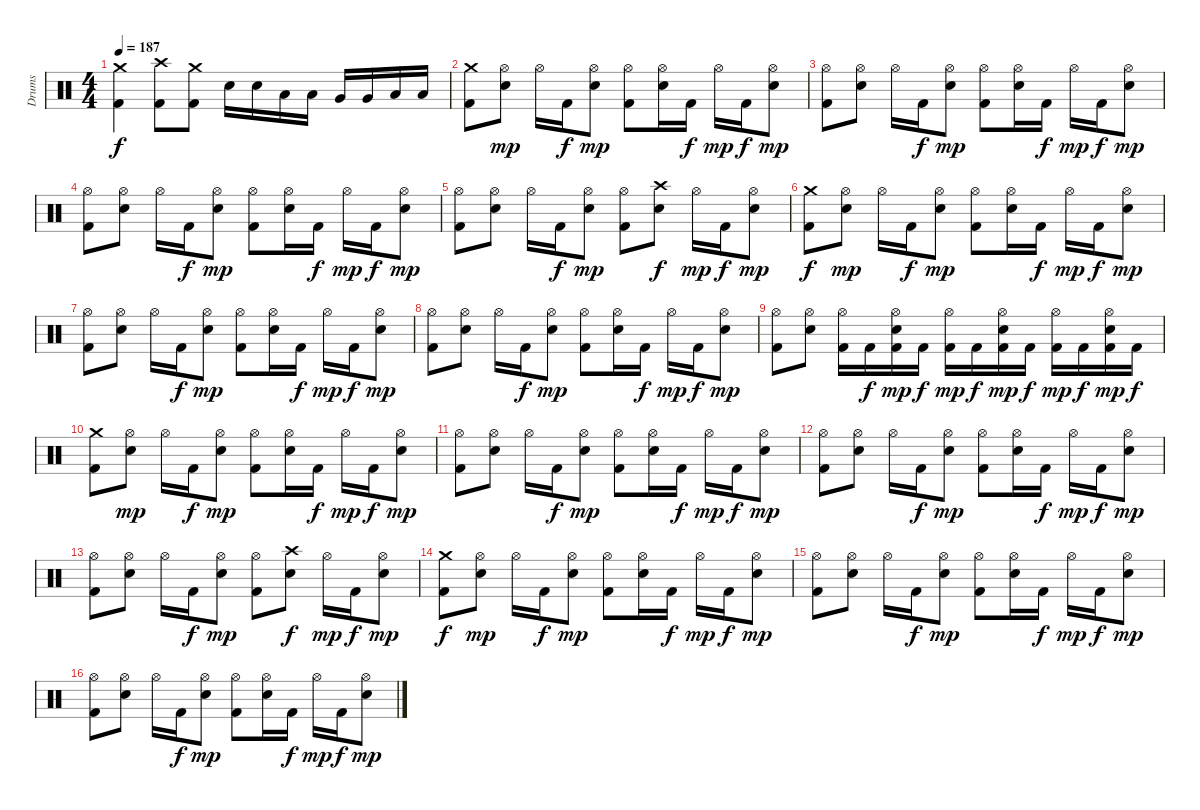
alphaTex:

\track ("Drums" "Drums") {instrument percussion}
\staff {score}
\articulation defaults
\ts (4 4)
\tempo 187
\clef neutral
\ks c
("Crash medium (hit)" "Kick (hit) 2").4{dy f} ("Crash high (hit)" "Kick (hit) 2").8 ("Crash medium (hit)" "Kick (hit) 2").8 "Snare (hit) 2".16 "Snare (hit) 2".16 "Low Tom (hit)".16 "Low Tom (hit)".16 "Very Low Tom (hit)".16 "Very Low Tom (hit)".16 "Low Floor Tom (hit)".16 "Low Floor Tom (hit)".16 |
("Crash medium (hit)" "Kick (hit) 2").8 ("Hi-Hat (open)" "Snare (hit) 2").8{dy mp} "Hi-Hat (open)".16 "Kick (hit) 2".16{dy f} ("Hi-Hat (open)" "Snare (hit) 2").8{dy mp} ("Hi-Hat (open)" "Kick (hit) 2").8 ("Hi-Hat (open)" "Snare (hit) 2").16 "Kick (hit) 2".16{dy f} "Hi-Hat (open)".16{dy mp} "Kick (hit) 2".16{dy f} ("Hi-Hat (open)" "Snare (hit) 2").8{dy mp} |
("Hi-Hat (open)" "Kick (hit) 2").8 ("Hi-Hat (open)" "Snare (hit) 2").8 "Hi-Hat (open)".16 "Kick (hit) 2".16{dy f} ("Hi-Hat (open)" "Snare (hit) 2").8{dy mp} ("Hi-Hat (open)" "Kick (hit) 2").8 ("Hi-Hat (open)" "Snare (hit) 2").16 "Kick (hit) 2".16{dy f} "Hi-Hat (open)".16{dy mp} "Kick (hit) 2".16{dy f} ("Hi-Hat (open)" "Snare (hit) 2").8{dy mp} |
("Hi-Hat (open)" "Kick (hit) 2").8 ("Hi-Hat (open)" "Snare (hit) 2").8 "Hi-Hat (open)".16 "Kick (hit) 2".16{dy f} ("Hi-Hat (open)" "Snare (hit) 2").8{dy mp} ("Hi-Hat (open)" "Kick (hit) 2").8 ("Hi-Hat (open)" "Snare (hit) 2").16 "Kick (hit) 2".16{dy f} "Hi-Hat (open)".16{dy mp} "Kick (hit) 2".16{dy f} ("Hi-Hat (open)" "Snare (hit) 2").8{dy mp} |
("Hi-Hat (open)" "Kick (hit) 2").8 ("Hi-Hat (open)" "Snare (hit) 2").8 "Hi-Hat (open)".16 "Kick (hit) 2".16{dy f} ("Hi-Hat (open)" "Snare (hit) 2").8{dy mp} ("Hi-Hat (open)" "Kick (hit) 2").8 ("Crash high (hit)" "Snare (hit) 2").8{dy f} "Hi-Hat (open)".16{dy mp} "Kick (hit) 2".16{dy f} ("Hi-Hat (open)" "Snare (hit) 2").8{dy mp} |
("Crash medium (hit)" "Kick (hit) 2").8{dy f} ("Hi-Hat (open)" "Snare (hit) 2").8{dy mp} "Hi-Hat (open)".16 "Kick (hit) 2".16{dy f} ("Hi-Hat (open)" "Snare (hit) 2").8{dy mp} ("Hi-Hat (open)" "Kick (hit) 2").8 ("Hi-Hat (open)" "Snare (hit) 2").16 "Kick (hit) 2".16{dy f} "Hi-Hat (open)".16{dy mp} "Kick (hit) 2".16{dy f} ("Hi-Hat (open)" "Snare (hit) 2").8{dy mp} |
("Hi-Hat (open)" "Kick (hit) 2").8 ("Hi-Hat (open)" "Snare (hit) 2").8 "Hi-Hat (open)".16 "Kick (hit) 2".16{dy f} ("Hi-Hat (open)" "Snare (hit) 2").8{dy mp} ("Hi-Hat (open)" "Kick (hit) 2").8 ("Hi-Hat (open)" "Snare (hit) 2").16 "Kick (hit) 2".16{dy f} "Hi-Hat (open)".16{dy mp} "Kick (hit) 2".16{dy f} ("Hi-Hat (open)" "Snare (hit) 2").8{dy mp} |
("Hi-Hat (open)" "Kick (hit) 2").8 ("Hi-Hat (open)" "Snare (hit) 2").8 "Hi-Hat (open)".16 "Kick (hit) 2".16{dy f} ("Hi-Hat (open)" "Snare (hit) 2").8{dy mp} ("Hi-Hat (open)" "Kick (hit) 2").8 ("Hi-Hat (open)" "Snare (hit) 2").16 "Kick (hit) 2".16{dy f} "Hi-Hat (open)".16{dy mp} "Kick (hit) 2".16{dy f} ("Hi-Hat (open)" "Snare (hit) 2").8{dy mp} |
("Hi-Hat (open)" "Kick (hit) 2").8 ("Hi-Hat (open)" "Snare (hit) 2").8 ("Hi-Hat (open)" "Kick (hit) 2").16 "Kick (hit) 2".16{dy f} ("Hi-Hat (open)" "Snare (hit) 2" "Kick (hit) 2").16{dy mp} "Kick (hit) 2".16{dy f} ("Hi-Hat (open)" "Kick (hit) 2").16{dy mp} "Kick (hit) 2".16{dy f} ("Hi-Hat (open)" "Snare (hit) 2" "Kick (hit) 2").16{dy mp} "Kick (hit) 2".16{dy f} ("Hi-Hat (open)" "Kick (hit) 2").16{dy mp} "Kick (hit) 2".16{dy f} ("Hi-Hat (open)" "Snare (hit) 2" "Kick (hit) 2").16{dy mp} "Kick (hit) 2".16{dy f} |
("Crash medium (hit)" "Kick (hit) 2").8 ("Hi-Hat (open)" "Snare (hit) 2").8{dy mp} "Hi-Hat (open)".16 "Kick (hit) 2".16{dy f} ("Hi-Hat (open)" "Snare (hit) 2").8{dy mp} ("Hi-Hat (open)" "Kick (hit) 2").8 ("Hi-Hat (open)" "Snare (hit) 2").16 "Kick (hit) 2".16{dy f} "Hi-Hat (open)".16{dy mp} "Kick (hit) 2".16{dy f} ("Hi-Hat (open)" "Snare (hit) 2").8{dy mp} |
("Hi-Hat (open)" "Kick (hit) 2").8 ("Hi-Hat (open)" "Snare (hit) 2").8 "Hi-Hat (open)".16 "Kick (hit) 2".16{dy f} ("Hi-Hat (open)" "Snare (hit) 2").8{dy mp} ("Hi-Hat (open)" "Kick (hit) 2").8 ("Hi-Hat (open)" "Snare (hit) 2").16 "Kick (hit) 2".16{dy f} "Hi-Hat (open)".16{dy mp} "Kick (hit) 2".16{dy f} ("Hi-Hat (open)" "Snare (hit) 2").8{dy mp} |
("Hi-Hat (open)" "Kick (hit) 2").8 ("Hi-Hat (open)" "Snare (hit) 2").8 "Hi-Hat (open)".16 "Kick (hit) 2".16{dy f} ("Hi-Hat (open)" "Snare (hit) 2").8{dy mp} ("Hi-Hat (open)" "Kick (hit) 2").8 ("Hi-Hat (open)" "Snare (hit) 2").16 "Kick (hit) 2".16{dy f} "Hi-Hat (open)".16{dy mp} "Kick (hit) 2".16{dy f} ("Hi-Hat (open)" "Snare (hit) 2").8{dy mp} |
("Hi-Hat (open)" "Kick (hit) 2").8 ("Hi-Hat (open)" "Snare (hit) 2").8 "Hi-Hat (open)".16 "Kick (hit) 2".16{dy f} ("Hi-Hat (open)" "Snare (hit) 2").8{dy mp} ("Hi-Hat (open)" "Kick (hit) 2").8 ("Crash high (hit)" "Snare (hit) 2").8{dy f} "Hi-Hat (open)".16{dy mp} "Kick (hit) 2".16{dy f} ("Hi-Hat (open)" "Snare (hit) 2").8{dy mp} |
("Crash medium (hit)" "Kick (hit) 2").8{dy f} ("Hi-Hat (open)" "Snare (hit) 2").8{dy mp} "Hi-Hat (open)".16 "Kick (hit) 2".16{dy f} ("Hi-Hat (open)" "Snare (hit) 2").8{dy mp} ("Hi-Hat (open)" "Kick (hit) 2").8 ("Hi-Hat (open)" "Snare (hit) 2").16 "Kick (hit) 2".16{dy f} "Hi-Hat (open)".16{dy mp} "Kick (hit) 2".16{dy f} ("Hi-Hat (open)" "Snare (hit) 2").8{dy mp} |
("Hi-Hat (open)" "Kick (hit) 2").8 ("Hi-Hat (open)" "Snare (hit) 2").8 "Hi-Hat (open)".16 "Kick (hit) 2".16{dy f} ("Hi-Hat (open)" "Snare (hit) 2").8{dy mp} ("Hi-Hat (open)" "Kick (hit) 2").8 ("Hi-Hat (open)" "Snare (hit) 2").16 "Kick (hit) 2".16{dy f} "Hi-Hat (open)".16{dy mp} "Kick (hit) 2".16{dy f} ("Hi-Hat (open)" "Snare (hit) 2").8{dy mp} |
("Hi-Hat (open)" "Kick (hit) 2").8 ("Hi-Hat (open)" "Snare (hit) 2").8 "Hi-Hat (open)".16 "Kick (hit) 2".16{dy f} ("Hi-Hat (open)" "Snare (hit) 2").8{dy mp} ("Hi-Hat (open)" "Kick (hit) 2").8 ("Hi-Hat (open)" "Snare (hit) 2").16 "Kick (hit) 2".16{dy f} "Hi-Hat (open)".16{dy mp} "Kick (hit) 2".16{dy f} ("Hi-Hat (open)" "Snare (hit) 2").8{dy mp}
